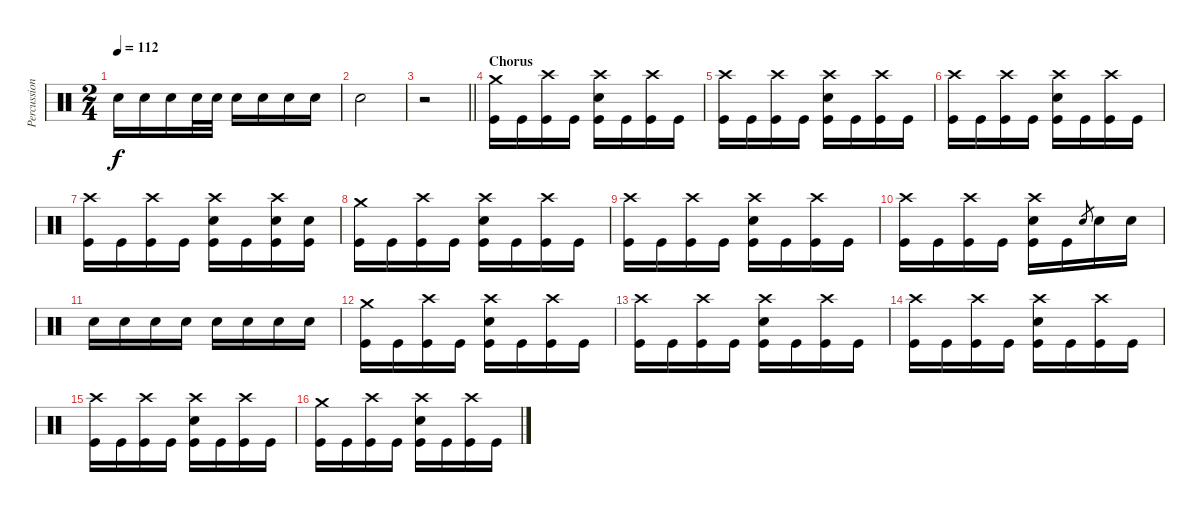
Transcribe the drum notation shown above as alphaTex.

\track ("Percussion" "Percussion") {instrument percussion}
\staff {score}
\articulation defaults
\ts (2 4)
\tempo 112
\clef neutral
\ks c "Electric Snare (hit)".16{dy f} "Electric Snare (hit)".16 "Electric Snare (hit)".16 "Electric Snare (hit)".32 "Electric Snare (hit)".32 "Electric Snare (hit)".16 "Electric Snare (hit)".16 "Electric Snare (hit)".16 "Electric Snare (hit)".16
|
"Electric Snare (hit)".2 |
\barLineRight lightlight
r.2 |
\section ("" "Chorus")
("Crash medium (hit)" "Kick (hit)").16 "Kick (hit)".16 ("Crash high (hit)" "Kick (hit)").16 "Kick (hit)".16 ("Crash high (hit)" "Electric Snare (hit)" "Kick (hit)").16 "Kick (hit)".16 ("Crash high (hit)" "Kick (hit)").16 "Kick (hit)".16 |
("Crash high (hit)" "Kick (hit)").16 "Kick (hit)".16 ("Crash high (hit)" "Kick (hit)").16 "Kick (hit)".16 ("Crash high (hit)" "Electric Snare (hit)" "Kick (hit)").16 "Kick (hit)".16 ("Crash high (hit)" "Kick (hit)").16 "Kick (hit)".16 |
("Crash high (hit)" "Kick (hit)").16 "Kick (hit)".16 ("Crash high (hit)" "Kick (hit)").16 "Kick (hit)".16 ("Crash high (hit)" "Electric Snare (hit)" "Kick (hit)").16 "Kick (hit)".16 ("Crash high (hit)" "Kick (hit)").16 "Kick (hit)".16 |
("Crash high (hit)" "Kick (hit)").16 "Kick (hit)".16 ("Crash high (hit)" "Kick (hit)").16 "Kick (hit)".16 ("Crash high (hit)" "Electric Snare (hit)" "Kick (hit)").16 "Kick (hit)".16 ("Crash high (hit)" "Electric Snare (hit)" "Kick (hit)").16 ("Electric Snare (hit)" "Kick (hit)").16 |
("Crash medium (hit)" "Kick (hit)").16 "Kick (hit)".16 ("Crash high (hit)" "Kick (hit)").16 "Kick (hit)".16 ("Crash high (hit)" "Electric Snare (hit)" "Kick (hit)").16 "Kick (hit)".16 ("Crash high (hit)" "Kick (hit)").16 "Kick (hit)".16 |
("Crash high (hit)" "Kick (hit)").16 "Kick (hit)".16 ("Crash high (hit)" "Kick (hit)").16 "Kick (hit)".16 ("Crash high (hit)" "Electric Snare (hit)" "Kick (hit)").16 "Kick (hit)".16 ("Crash high (hit)" "Kick (hit)").16 "Kick (hit)".16 |
("Crash high (hit)" "Kick (hit)").16 "Kick (hit)".16 ("Crash high (hit)" "Kick (hit)").16 "Kick (hit)".16 ("Crash high (hit)" "Electric Snare (hit)" "Kick (hit)").16 "Kick (hit)".16 "Electric Snare (hit)".8{gr} "Electric Snare (hit)".16 "Electric Snare (hit)".16 |
"Electric Snare (hit)".16 "Electric Snare (hit)".16 "Electric Snare (hit)".16 "Electric Snare (hit)".16 "Electric Snare (hit)".16 "Electric Snare (hit)".16 "Electric Snare (hit)".16 "Electric Snare (hit)".16 |
("Crash medium (hit)" "Kick (hit)").16 "Kick (hit)".16 ("Crash high (hit)" "Kick (hit)").16 "Kick (hit)".16 ("Crash high (hit)" "Electric Snare (hit)" "Kick (hit)").16 "Kick (hit)".16 ("Crash high (hit)" "Kick (hit)").16 "Kick (hit)".16 |
("Crash high (hit)" "Kick (hit)").16 "Kick (hit)".16 ("Crash high (hit)" "Kick (hit)").16 "Kick (hit)".16 ("Crash high (hit)" "Electric Snare (hit)" "Kick (hit)").16 "Kick (hit)".16 ("Crash high (hit)" "Kick (hit)").16 "Kick (hit)".16 |
("Crash high (hit)" "Kick (hit)").16 "Kick (hit)".16 ("Crash high (hit)" "Kick (hit)").16 "Kick (hit)".16 ("Crash high (hit)" "Electric Snare (hit)" "Kick (hit)").16 "Kick (hit)".16 ("Crash high (hit)" "Kick (hit)").16 "Kick (hit)".16 |
("Crash high (hit)" "Kick (hit)").16 "Kick (hit)".16 ("Crash high (hit)" "Kick (hit)").16 "Kick (hit)".16 ("Crash high (hit)" "Electric Snare (hit)" "Kick (hit)").16 "Kick (hit)".16 ("Crash high (hit)" "Kick (hit)").16 "Kick (hit)".16 |
("Crash medium (hit)" "Kick (hit)").16 "Kick (hit)".16 ("Crash high (hit)" "Kick (hit)").16 "Kick (hit)".16 ("Crash high (hit)" "Electric Snare (hit)" "Kick (hit)").16 "Kick (hit)".16 ("Crash high (hit)" "Kick (hit)").16 "Kick (hit)".16
